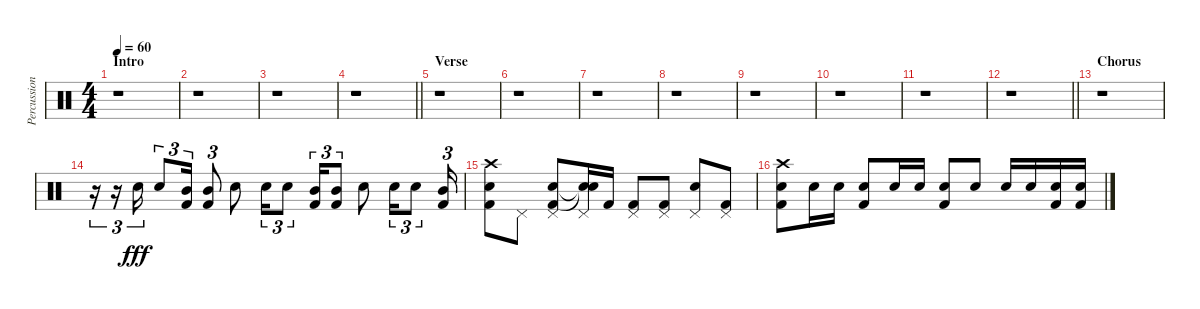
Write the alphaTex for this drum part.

\track ("Percussioni" "Percussion") {instrument percussion}
\staff {score}
\articulation defaults
\ts (4 4)
\section ("" "Intro")
\tempo 60
\clef neutral
\ks c
r.1{dy fff} |
r.1 |
r.1 |
\barLineRight lightlight
r.1 |
\section ("" "Verse")
r.1 |
r.1 |
r.1 |
r.1 |
r.1 |
r.1 |
r.1 |
\barLineRight lightlight
r.1 |
\section ("" "Chorus")
r.1 |
r.16{tu (3 2)} r.16{tu (3 2)} "Snare (hit) 2".16{tu (3 2)} "Snare (hit) 2".8{tu (3 2)} ("Mid Tom (hit)" "Kick (hit) 2").16{tu (3 2)} ("Mid Tom (hit)" "Kick (hit) 2").8{tu (3 2)} "Snare (hit) 2".8 "Snare (hit) 2".16{tu (3 2)} "Snare (hit) 2".8{tu (3 2)} ("Mid Tom (hit)" "Kick (hit) 2").16{tu (3 2)} ("Mid Tom (hit)" "Kick (hit) 2").8{tu (3 2)} "Snare (hit) 2".8 "Snare (hit) 2".16{tu (3 2)} "Snare (hit) 2".8{tu (3 2)} ("Mid Tom (hit)" "Kick (hit) 2").16{tu (3 2)} |
("Crash high (hit)" "Snare (hit) 2" "Kick (hit) 2").8 "Pedal Hi-Hat (hit)".8 ("Pedal Hi-Hat (hit)" "Snare (hit) 2" "Kick (hit) 2").8 ("Pedal Hi-Hat (hit)" "Snare (hit)"{t} "Snare (hit)"{t}).16 "Kick (hit) 2".16 ("Pedal Hi-Hat (hit)" "Kick (hit) 2").8 ("Pedal Hi-Hat (hit)" "Kick (hit) 2").8 ("Pedal Hi-Hat (hit)" "Snare (hit) 2").8 ("Pedal Hi-Hat (hit)" "Kick (hit) 2").8 |
("Crash high (hit)" "Snare (hit) 2" "Kick (hit) 2").8 "Snare (hit) 2".16 "Snare (hit) 2".16 ("Snare (hit) 2" "Kick (hit) 2").8 "Snare (hit) 2".16 "Snare (hit) 2".16 ("Snare (hit) 2" "Kick (hit) 2").8 "Snare (hit) 2".8 "Snare (hit) 2".16 "Snare (hit) 2".16 ("Snare (hit) 2" "Kick (hit) 2").16 ("Snare (hit) 2" "Kick (hit) 2").16
